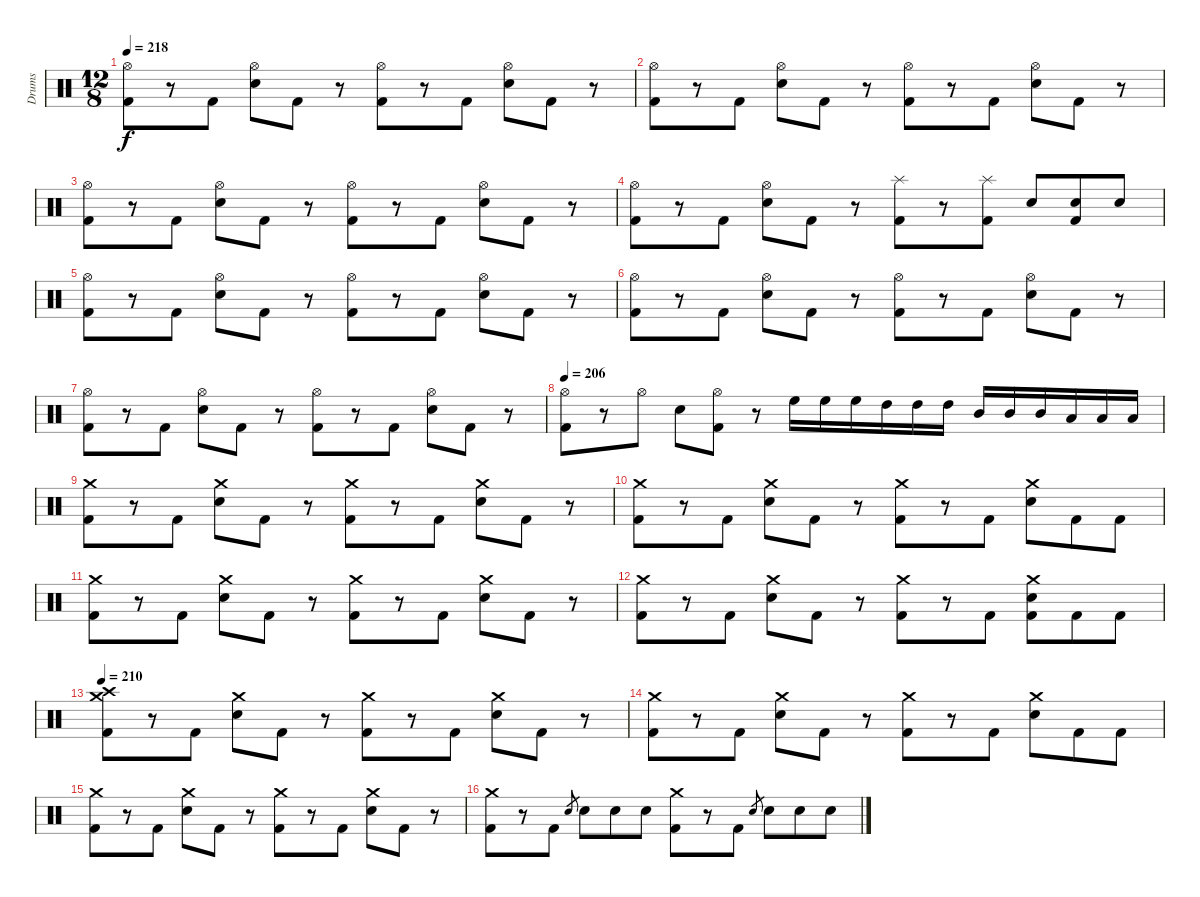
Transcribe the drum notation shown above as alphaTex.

\track ("Drums" "Drums") {instrument percussion}
\staff {score}
\articulation defaults
\ts (12 8)
\tempo 218
\clef neutral
\ks c
("Hi-Hat (open)" "Kick (hit) 2").8{dy f} r.8 "Kick (hit) 2".8 ("Hi-Hat (open)" "Snare (hit) 2").8 "Kick (hit) 2".8 r.8 ("Hi-Hat (open)" "Kick (hit) 2").8 r.8 "Kick (hit) 2".8 ("Hi-Hat (open)" "Snare (hit) 2").8 "Kick (hit) 2".8 r.8 |
("Hi-Hat (open)" "Kick (hit) 2").8 r.8 "Kick (hit) 2".8 ("Hi-Hat (open)" "Snare (hit) 2").8 "Kick (hit) 2".8 r.8 ("Hi-Hat (open)" "Kick (hit) 2").8 r.8 "Kick (hit) 2".8 ("Hi-Hat (open)" "Snare (hit) 2").8 "Kick (hit) 2".8 r.8 |
("Hi-Hat (open)" "Kick (hit) 2").8 r.8 "Kick (hit) 2".8 ("Hi-Hat (open)" "Snare (hit) 2").8 "Kick (hit) 2".8 r.8 ("Hi-Hat (open)" "Kick (hit) 2").8 r.8 "Kick (hit) 2".8 ("Hi-Hat (open)" "Snare (hit) 2").8 "Kick (hit) 2".8 r.8 |
("Hi-Hat (open)" "Kick (hit) 2").8 r.8 "Kick (hit) 2".8 ("Hi-Hat (open)" "Snare (hit) 2").8 "Kick (hit) 2".8 r.8 ("Splash (hit)" "Kick (hit) 2").8 r.8 ("Splash (hit)" "Kick (hit) 2").8 "Snare (hit) 2".8 ("Snare (hit) 2" "Kick (hit) 2").8 "Snare (hit) 2".8 |
("Hi-Hat (open)" "Kick (hit) 2").8 r.8 "Kick (hit) 2".8 ("Hi-Hat (open)" "Snare (hit) 2").8 "Kick (hit) 2".8 r.8 ("Hi-Hat (open)" "Kick (hit) 2").8 r.8 "Kick (hit) 2".8 ("Hi-Hat (open)" "Snare (hit) 2").8 "Kick (hit) 2".8 r.8 |
("Hi-Hat (open)" "Kick (hit) 2").8 r.8 "Kick (hit) 2".8 ("Hi-Hat (open)" "Snare (hit) 2").8 "Kick (hit) 2".8 r.8 ("Hi-Hat (open)" "Kick (hit) 2").8 r.8 "Kick (hit) 2".8 ("Hi-Hat (open)" "Snare (hit) 2").8 "Kick (hit) 2".8 r.8 |
("Hi-Hat (open)" "Kick (hit) 2").8 r.8 "Kick (hit) 2".8 ("Hi-Hat (open)" "Snare (hit) 2").8 "Kick (hit) 2".8 r.8 ("Hi-Hat (open)" "Kick (hit) 2").8 r.8 "Kick (hit) 2".8 ("Hi-Hat (open)" "Snare (hit) 2").8 "Kick (hit) 2".8 r.8 |
\tempo 206
("Hi-Hat (open)" "Kick (hit) 2").8 r.8 "Hi-Hat (open)".8 "Snare (hit) 2".8 ("Hi-Hat (open)" "Kick (hit) 2").8 r.8 "High Floor Tom (hit)".16 "High Floor Tom (hit)".16 "High Floor Tom (hit)".16 "High Tom (hit)".16 "High Tom (hit)".16 "High Tom (hit)".16 "Mid Tom (hit)".16 "Mid Tom (hit)".16 "Mid Tom (hit)".16 "Low Tom (hit)".16 "Low Tom (hit)".16 "Low Tom (hit)".16 |
("Crash medium (hit)" "Kick (hit) 2").8 r.8 "Kick (hit) 2".8 ("Crash medium (hit)" "Snare (hit) 2").8 "Kick (hit) 2".8 r.8 ("Crash medium (hit)" "Kick (hit) 2").8 r.8 "Kick (hit) 2".8 ("Crash medium (hit)" "Snare (hit) 2").8 "Kick (hit) 2".8 r.8 |
("Crash medium (hit)" "Kick (hit) 2").8 r.8 "Kick (hit) 2".8 ("Crash medium (hit)" "Snare (hit) 2").8 "Kick (hit) 2".8 r.8 ("Crash medium (hit)" "Kick (hit) 2").8 r.8 "Kick (hit) 2".8 ("Crash medium (hit)" "Snare (hit) 2").8 "Kick (hit) 2".8 "Kick (hit) 2".8 |
("Crash medium (hit)" "Kick (hit) 2").8 r.8 "Kick (hit) 2".8 ("Crash medium (hit)" "Snare (hit) 2").8 "Kick (hit) 2".8 r.8 ("Crash medium (hit)" "Kick (hit) 2").8 r.8 "Kick (hit) 2".8 ("Crash medium (hit)" "Snare (hit) 2").8 "Kick (hit) 2".8 r.8 |
("Crash medium (hit)" "Kick (hit) 2").8 r.8 "Kick (hit) 2".8 ("Crash medium (hit)" "Snare (hit) 2").8 "Kick (hit) 2".8 r.8 ("Crash medium (hit)" "Kick (hit) 2").8 r.8 "Kick (hit) 2".8 ("Crash medium (hit)" "Snare (hit) 2" "Kick (hit) 2").8 "Kick (hit) 2".8 "Kick (hit) 2".8 |
\tempo 210
("Crash medium (hit)" "Crash high (hit)" "Kick (hit) 2").8 r.8 "Kick (hit) 2".8 ("Crash medium (hit)" "Snare (hit) 2").8 "Kick (hit) 2".8 r.8 ("Crash medium (hit)" "Kick (hit) 2").8 r.8 "Kick (hit) 2".8 ("Crash medium (hit)" "Snare (hit) 2").8 "Kick (hit) 2".8 r.8 |
("Crash medium (hit)" "Kick (hit) 2").8 r.8 "Kick (hit) 2".8 ("Crash medium (hit)" "Snare (hit) 2").8 "Kick (hit) 2".8 r.8 ("Crash medium (hit)" "Kick (hit) 2").8 r.8 "Kick (hit) 2".8 ("Crash medium (hit)" "Snare (hit) 2").8 "Kick (hit) 2".8 "Kick (hit) 2".8 |
("Crash medium (hit)" "Kick (hit) 2").8 r.8 "Kick (hit) 2".8 ("Crash medium (hit)" "Snare (hit) 2").8 "Kick (hit) 2".8 r.8 ("Crash medium (hit)" "Kick (hit) 2").8 r.8 "Kick (hit) 2".8 ("Crash medium (hit)" "Snare (hit) 2").8 "Kick (hit) 2".8 r.8 |
("Crash medium (hit)" "Kick (hit) 2").8 r.8 "Kick (hit) 2".8 "Snare (hit) 2".8{gr} "Snare (hit) 2".8 "Snare (hit) 2".8 "Snare (hit) 2".8 ("Crash medium (hit)" "Kick (hit) 2").8 r.8 "Kick (hit) 2".8 "Snare (hit) 2".8{gr} "Snare (hit) 2".8 "Snare (hit) 2".8 "Snare (hit) 2".8
